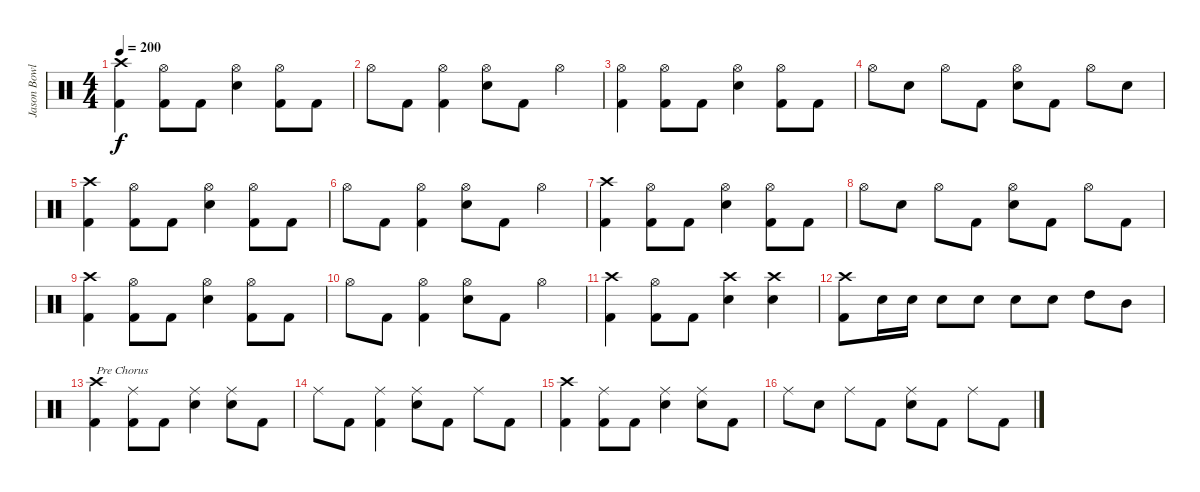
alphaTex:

\track ("Jason Bowld" "Jason Bowl") {instrument percussion}
\staff {score}
\articulation defaults
\ts (4 4)
\tempo 200
\clef neutral
\ks c
("Crash high (hit)" "Kick (hit) 2").4{dy f} ("Hi-Hat (open)" "Kick (hit) 2").8 "Kick (hit) 2".8 ("Hi-Hat (open)" "Snare (hit) 2").4 ("Hi-Hat (open)" "Kick (hit) 2").8 "Kick (hit) 2".8 |
"Hi-Hat (open)".8 "Kick (hit) 2".8 ("Hi-Hat (open)" "Kick (hit) 2").4 ("Hi-Hat (open)" "Snare (hit) 2").8 "Kick (hit) 2".8 "Hi-Hat (open)".4 |
("Hi-Hat (open)" "Kick (hit) 2").4 ("Hi-Hat (open)" "Kick (hit) 2").8 "Kick (hit) 2".8 ("Hi-Hat (open)" "Snare (hit) 2").4 ("Hi-Hat (open)" "Kick (hit) 2").8 "Kick (hit) 2".8 |
"Hi-Hat (open)".8 "Snare (hit) 2".8 "Hi-Hat (open)".8 "Kick (hit) 2".8 ("Hi-Hat (open)" "Snare (hit) 2").8 "Kick (hit) 2".8 "Hi-Hat (open)".8 "Snare (hit) 2".8 |
("Crash high (hit)" "Kick (hit) 2").4 ("Hi-Hat (open)" "Kick (hit) 2").8 "Kick (hit) 2".8 ("Hi-Hat (open)" "Snare (hit) 2").4 ("Hi-Hat (open)" "Kick (hit) 2").8 "Kick (hit) 2".8 |
"Hi-Hat (open)".8 "Kick (hit) 2".8 ("Hi-Hat (open)" "Kick (hit) 2").4 ("Hi-Hat (open)" "Snare (hit) 2").8 "Kick (hit) 2".8 "Hi-Hat (open)".4 |
("Crash high (hit)" "Kick (hit) 2").4 ("Hi-Hat (open)" "Kick (hit) 2").8 "Kick (hit) 2".8 ("Hi-Hat (open)" "Snare (hit) 2").4 ("Hi-Hat (open)" "Kick (hit) 2").8 "Kick (hit) 2".8 |
"Hi-Hat (open)".8 "Snare (hit) 2".8 "Hi-Hat (open)".8 "Kick (hit) 2".8 ("Hi-Hat (open)" "Snare (hit) 2").8 "Kick (hit) 2".8 "Hi-Hat (open)".8 "Kick (hit) 2".8 |
("Crash high (hit)" "Kick (hit) 2").4 ("Hi-Hat (open)" "Kick (hit) 2").8 "Kick (hit) 2".8 ("Hi-Hat (open)" "Snare (hit) 2").4 ("Hi-Hat (open)" "Kick (hit) 2").8 "Kick (hit) 2".8 |
"Hi-Hat (open)".8 "Kick (hit) 2".8 ("Hi-Hat (open)" "Kick (hit) 2").4 ("Hi-Hat (open)" "Snare (hit) 2").8 "Kick (hit) 2".8 "Hi-Hat (open)".4 |
("Crash high (hit)" "Kick (hit) 2").4 ("Hi-Hat (open)" "Kick (hit) 2").8 "Kick (hit) 2".8 ("Crash high (hit)" "Snare (hit) 2").4 ("Crash high (hit)" "Snare (hit) 2").4 |
("Crash high (hit)" "Kick (hit) 2").8 "Snare (hit) 2".16 "Snare (hit) 2".16 "Snare (hit) 2".8 "Snare (hit) 2".8 "Snare (hit) 2".8 "Snare (hit) 2".8 "High Tom (hit)".8 "Mid Tom (hit)".8 |
("Crash high (hit)" "Kick (hit) 2").4{txt "Pre Chorus"} ("Ride (middle)" "Kick (hit) 2").8 "Kick (hit) 2".8 ("Ride (middle)" "Snare (hit) 2").4 ("Ride (middle)" "Snare (hit) 2").8 "Kick (hit) 2".8 |
"Ride (middle)".8 "Kick (hit) 2".8 ("Ride (middle)" "Kick (hit) 2").4 ("Ride (middle)" "Snare (hit) 2").8 "Kick (hit) 2".8 "Ride (middle)".8 "Kick (hit) 2".8 |
("Crash high (hit)" "Kick (hit) 2").4 ("Ride (middle)" "Kick (hit) 2").8 "Kick (hit) 2".8 ("Ride (middle)" "Snare (hit) 2").4 ("Ride (middle)" "Snare (hit) 2").8 "Kick (hit) 2".8 |
"Ride (middle)".8 "Snare (hit) 2".8 "Ride (middle)".8 "Kick (hit) 2".8 ("Ride (middle)" "Snare (hit) 2").8 "Kick (hit) 2".8 "Ride (middle)".8 "Kick (hit) 2".8
